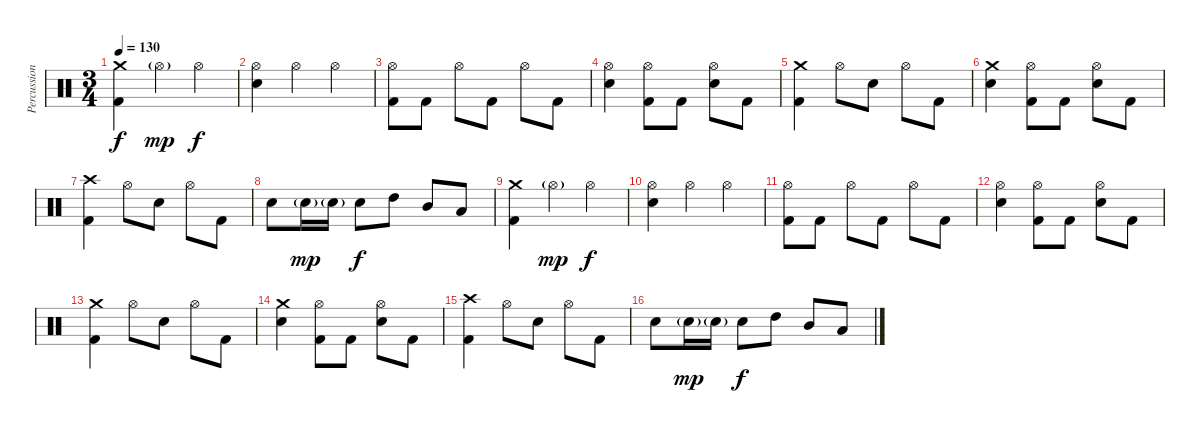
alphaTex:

\track ("Percussion" "Percussion") {instrument percussion}
\staff {score}
\articulation defaults
\ts (3 4)
\tempo 130
\clef neutral
\ks c
("Crash medium (hit)" "Kick (hit) 2").4{dy f} "Hi-Hat (open)"{g}.4{dy mp} "Hi-Hat (open)".4{dy f} |
("Hi-Hat (open)" "Electric Snare (hit)").4 "Hi-Hat (open)".4 "Hi-Hat (open)".4 |
("Hi-Hat (open)" "Kick (hit) 2").8 "Kick (hit) 2".8 "Hi-Hat (open)".8 "Kick (hit) 2".8 "Hi-Hat (open)".8 "Kick (hit) 2".8 |
("Hi-Hat (open)" "Electric Snare (hit)").4 ("Hi-Hat (open)" "Kick (hit) 2").8 "Kick (hit) 2".8 ("Hi-Hat (open)" "Electric Snare (hit)").8 "Kick (hit) 2".8 |
("Crash medium (hit)" "Kick (hit) 2").4 "Hi-Hat (open)".8 "Electric Snare (hit)".8 "Hi-Hat (open)".8 "Kick (hit) 2".8 |
("Crash medium (hit)" "Electric Snare (hit)").4 ("Hi-Hat (open)" "Kick (hit) 2").8 "Kick (hit) 2".8 ("Hi-Hat (open)" "Electric Snare (hit)").8 "Kick (hit) 2".8 |
("Crash high (hit)" "Kick (hit) 2").4 "Hi-Hat (open)".8 "Electric Snare (hit)".8 "Hi-Hat (open)".8 "Kick (hit) 2".8 |
"Electric Snare (hit)".8 "Electric Snare (hit)"{g}.16{dy mp} "Electric Snare (hit)"{g}.16 "Electric Snare (hit)".8{dy f} "High Tom (hit)".8 "Mid Tom (hit)".8 "Low Tom (hit)".8 |
("Crash medium (hit)" "Kick (hit) 2").4 "Hi-Hat (open)"{g}.4{dy mp} "Hi-Hat (open)".4{dy f} |
("Hi-Hat (open)" "Electric Snare (hit)").4 "Hi-Hat (open)".4 "Hi-Hat (open)".4 |
("Hi-Hat (open)" "Kick (hit) 2").8 "Kick (hit) 2".8 "Hi-Hat (open)".8 "Kick (hit) 2".8 "Hi-Hat (open)".8 "Kick (hit) 2".8 |
("Hi-Hat (open)" "Electric Snare (hit)").4 ("Hi-Hat (open)" "Kick (hit) 2").8 "Kick (hit) 2".8 ("Hi-Hat (open)" "Electric Snare (hit)").8 "Kick (hit) 2".8 |
("Crash medium (hit)" "Kick (hit) 2").4 "Hi-Hat (open)".8 "Electric Snare (hit)".8 "Hi-Hat (open)".8 "Kick (hit) 2".8 |
("Crash medium (hit)" "Electric Snare (hit)").4 ("Hi-Hat (open)" "Kick (hit) 2").8 "Kick (hit) 2".8 ("Hi-Hat (open)" "Electric Snare (hit)").8 "Kick (hit) 2".8 |
("Crash high (hit)" "Kick (hit) 2").4 "Hi-Hat (open)".8 "Electric Snare (hit)".8 "Hi-Hat (open)".8 "Kick (hit) 2".8 |
"Electric Snare (hit)".8 "Electric Snare (hit)"{g}.16{dy mp} "Electric Snare (hit)"{g}.16 "Electric Snare (hit)".8{dy f} "High Tom (hit)".8 "Mid Tom (hit)".8 "Low Tom (hit)".8
